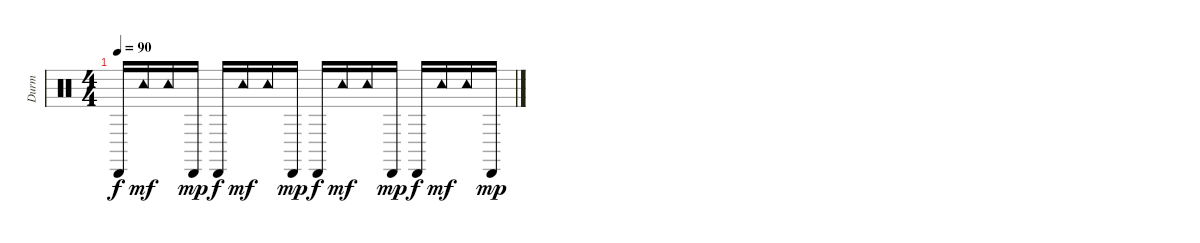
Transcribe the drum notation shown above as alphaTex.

\track ("Durm" "Durm") {instrument percussion}
\staff {score}
\articulation defaults
\ts (4 4)
\tempo 90
\clef neutral
\ks c "Cabasa (hit)".16{dy f} "Tambourine (hit)".16{dy mf} "Tambourine (hit)".16 "Cabasa (hit)".16{dy mp} "Cabasa (hit)".16{dy f} "Tambourine (hit)".16{dy mf} "Tambourine (hit)".16 "Cabasa (hit)".16{dy mp} "Cabasa (hit)".16{dy f} "Tambourine (hit)".16{dy mf} "Tambourine (hit)".16 "Cabasa (hit)".16{dy mp} "Cabasa (hit)".16{dy f} "Tambourine (hit)".16{dy mf} "Tambourine (hit)".16 "Cabasa (hit)".16{dy mp}
